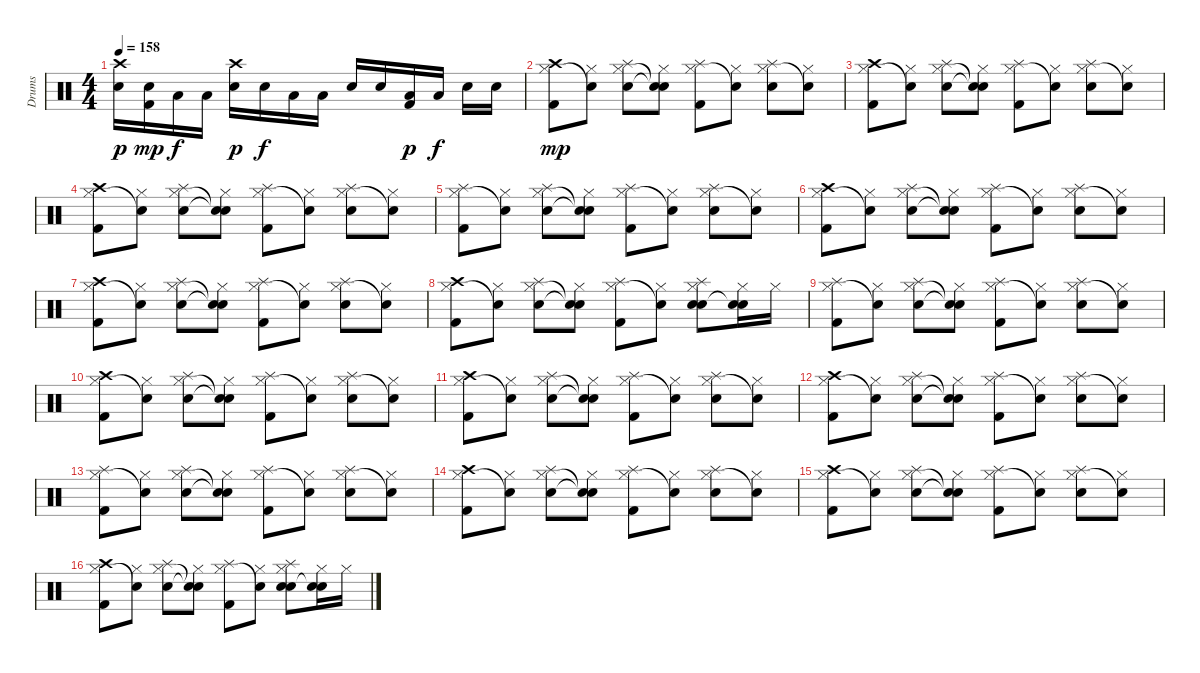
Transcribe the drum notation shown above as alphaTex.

\track ("Drums" "Drums") {instrument percussion}
\staff {score}
\articulation defaults
\ts (4 4)
\tempo 158
\clef neutral
\ks c
("Crash high (hit)" "Electric Snare (hit)").16{dy p} ("Electric Snare (hit)" "Kick (hit) 2").16{dy mp} "Low Tom (hit)".16{dy f} "Low Tom (hit)".16 ("Crash high (hit)" "Electric Snare (hit)").16{dy p} "Electric Snare (hit)".16{dy f} "Low Tom (hit)".16 "Low Tom (hit)".16 "Electric Snare (hit)".16 "Electric Snare (hit)".16 ("Low Tom (hit)" "Kick (hit) 2").16{dy p} "Low Tom (hit)".16{dy f} "Electric Snare (hit)".16 "Electric Snare (hit)".16 |
("Crash high (hit)" "Hi-Hat (closed)" "Kick (hit) 2").8{dy mp} ("Hi-Hat (closed)" "Snare (hit)"{t}).8 ("Splash (hit)" "Hi-Hat (closed)" "Electric Snare (hit)").8 ("Hi-Hat (closed)" "Electric Snare (hit)"{t} "Snare (hit)"{t}).8 ("Splash (hit)" "Hi-Hat (closed)" "Kick (hit) 2").8 ("Hi-Hat (closed)" "Snare (hit)"{t}).8 ("Splash (hit)" "Hi-Hat (closed)" "Electric Snare (hit)").8 ("Hi-Hat (closed)" "Snare (hit)"{t}).8 |
("Crash high (hit)" "Hi-Hat (closed)" "Kick (hit) 2").8 ("Hi-Hat (closed)" "Snare (hit)"{t}).8 ("Splash (hit)" "Hi-Hat (closed)" "Electric Snare (hit)").8 ("Hi-Hat (closed)" "Electric Snare (hit)"{t} "Snare (hit)"{t}).8 ("Splash (hit)" "Hi-Hat (closed)" "Kick (hit) 2").8 ("Hi-Hat (closed)" "Snare (hit)"{t}).8 ("Splash (hit)" "Hi-Hat (closed)" "Electric Snare (hit)").8 ("Hi-Hat (closed)" "Snare (hit)"{t}).8 |
("Crash high (hit)" "Hi-Hat (closed)" "Kick (hit) 2").8 ("Hi-Hat (closed)" "Snare (hit)"{t}).8 ("Splash (hit)" "Hi-Hat (closed)" "Electric Snare (hit)").8 ("Hi-Hat (closed)" "Electric Snare (hit)"{t} "Snare (hit)"{t}).8 ("Splash (hit)" "Hi-Hat (closed)" "Kick (hit) 2").8 ("Hi-Hat (closed)" "Snare (hit)"{t}).8 ("Splash (hit)" "Hi-Hat (closed)" "Electric Snare (hit)").8 ("Hi-Hat (closed)" "Snare (hit)"{t}).8 |
("Splash (hit)" "Hi-Hat (closed)" "Kick (hit) 2").8 ("Hi-Hat (closed)" "Snare (hit)"{t}).8 ("Splash (hit)" "Hi-Hat (closed)" "Electric Snare (hit)").8 ("Hi-Hat (closed)" "Electric Snare (hit)"{t} "Snare (hit)"{t}).8 ("Splash (hit)" "Hi-Hat (closed)" "Kick (hit) 2").8 ("Hi-Hat (closed)" "Snare (hit)"{t}).8 ("Splash (hit)" "Hi-Hat (closed)" "Electric Snare (hit)").8 ("Hi-Hat (closed)" "Snare (hit)"{t}).8 |
("Crash high (hit)" "Hi-Hat (closed)" "Kick (hit) 2").8 ("Hi-Hat (closed)" "Snare (hit)"{t}).8 ("Splash (hit)" "Hi-Hat (closed)" "Electric Snare (hit)").8 ("Hi-Hat (closed)" "Electric Snare (hit)"{t} "Snare (hit)"{t}).8 ("Splash (hit)" "Hi-Hat (closed)" "Kick (hit) 2").8 ("Hi-Hat (closed)" "Snare (hit)"{t}).8 ("Splash (hit)" "Hi-Hat (closed)" "Electric Snare (hit)").8 ("Hi-Hat (closed)" "Snare (hit)"{t}).8 |
("Crash high (hit)" "Hi-Hat (closed)" "Kick (hit) 2").8 ("Hi-Hat (closed)" "Snare (hit)"{t}).8 ("Splash (hit)" "Hi-Hat (closed)" "Electric Snare (hit)").8 ("Hi-Hat (closed)" "Electric Snare (hit)"{t} "Snare (hit)"{t}).8 ("Splash (hit)" "Hi-Hat (closed)" "Kick (hit) 2").8 ("Hi-Hat (closed)" "Snare (hit)"{t}).8 ("Splash (hit)" "Hi-Hat (closed)" "Electric Snare (hit)").8 ("Hi-Hat (closed)" "Snare (hit)"{t}).8 |
("Crash high (hit)" "Hi-Hat (closed)" "Kick (hit) 2").8 ("Hi-Hat (closed)" "Snare (hit)"{t}).8 ("Splash (hit)" "Hi-Hat (closed)" "Electric Snare (hit)").8 ("Hi-Hat (closed)" "Electric Snare (hit)"{t} "Snare (hit)"{t}).8 ("Splash (hit)" "Hi-Hat (closed)" "Kick (hit) 2").8 ("Hi-Hat (closed)" "Snare (hit)"{t}).8 ("Splash (hit)" "Hi-Hat (closed)" "Electric Snare (hit)" "Electric Snare (hit)").8 ("Hi-Hat (closed)" "Electric Snare (hit)" "Snare (hit)"{t}).16 "Hi-Hat (closed)".16 |
("Splash (hit)" "Hi-Hat (closed)" "Kick (hit) 2").8 ("Hi-Hat (closed)" "Snare (hit)"{t}).8 ("Splash (hit)" "Hi-Hat (closed)" "Electric Snare (hit)").8 ("Hi-Hat (closed)" "Electric Snare (hit)"{t} "Snare (hit)"{t}).8 ("Splash (hit)" "Hi-Hat (closed)" "Kick (hit) 2").8 ("Hi-Hat (closed)" "Snare (hit)"{t}).8 ("Splash (hit)" "Hi-Hat (closed)" "Electric Snare (hit)").8 ("Hi-Hat (closed)" "Snare (hit)"{t}).8 |
("Crash high (hit)" "Hi-Hat (closed)" "Kick (hit) 2").8 ("Hi-Hat (closed)" "Snare (hit)"{t}).8 ("Splash (hit)" "Hi-Hat (closed)" "Electric Snare (hit)").8 ("Hi-Hat (closed)" "Electric Snare (hit)"{t} "Snare (hit)"{t}).8 ("Splash (hit)" "Hi-Hat (closed)" "Kick (hit) 2").8 ("Hi-Hat (closed)" "Snare (hit)"{t}).8 ("Splash (hit)" "Hi-Hat (closed)" "Electric Snare (hit)").8 ("Hi-Hat (closed)" "Snare (hit)"{t}).8 |
("Crash high (hit)" "Hi-Hat (closed)" "Kick (hit) 2").8 ("Hi-Hat (closed)" "Snare (hit)"{t}).8 ("Splash (hit)" "Hi-Hat (closed)" "Electric Snare (hit)").8 ("Hi-Hat (closed)" "Electric Snare (hit)"{t} "Snare (hit)"{t}).8 ("Splash (hit)" "Hi-Hat (closed)" "Kick (hit) 2").8 ("Hi-Hat (closed)" "Snare (hit)"{t}).8 ("Splash (hit)" "Hi-Hat (closed)" "Electric Snare (hit)").8 ("Hi-Hat (closed)" "Snare (hit)"{t}).8 |
("Crash high (hit)" "Hi-Hat (closed)" "Kick (hit) 2").8 ("Hi-Hat (closed)" "Snare (hit)"{t}).8 ("Splash (hit)" "Hi-Hat (closed)" "Electric Snare (hit)").8 ("Hi-Hat (closed)" "Electric Snare (hit)"{t} "Snare (hit)"{t}).8 ("Splash (hit)" "Hi-Hat (closed)" "Kick (hit) 2").8 ("Hi-Hat (closed)" "Snare (hit)"{t}).8 ("Splash (hit)" "Hi-Hat (closed)" "Electric Snare (hit)").8 ("Hi-Hat (closed)" "Snare (hit)"{t}).8 |
("Splash (hit)" "Hi-Hat (closed)" "Kick (hit) 2").8 ("Hi-Hat (closed)" "Snare (hit)"{t}).8 ("Splash (hit)" "Hi-Hat (closed)" "Electric Snare (hit)").8 ("Hi-Hat (closed)" "Electric Snare (hit)"{t} "Snare (hit)"{t}).8 ("Splash (hit)" "Hi-Hat (closed)" "Kick (hit) 2").8 ("Hi-Hat (closed)" "Snare (hit)"{t}).8 ("Splash (hit)" "Hi-Hat (closed)" "Electric Snare (hit)").8 ("Hi-Hat (closed)" "Snare (hit)"{t}).8 |
("Crash high (hit)" "Hi-Hat (closed)" "Kick (hit) 2").8 ("Hi-Hat (closed)" "Snare (hit)"{t}).8 ("Splash (hit)" "Hi-Hat (closed)" "Electric Snare (hit)").8 ("Hi-Hat (closed)" "Electric Snare (hit)"{t} "Snare (hit)"{t}).8 ("Splash (hit)" "Hi-Hat (closed)" "Kick (hit) 2").8 ("Hi-Hat (closed)" "Snare (hit)"{t}).8 ("Splash (hit)" "Hi-Hat (closed)" "Electric Snare (hit)").8 ("Hi-Hat (closed)" "Snare (hit)"{t}).8 |
("Crash high (hit)" "Hi-Hat (closed)" "Kick (hit) 2").8 ("Hi-Hat (closed)" "Snare (hit)"{t}).8 ("Splash (hit)" "Hi-Hat (closed)" "Electric Snare (hit)").8 ("Hi-Hat (closed)" "Electric Snare (hit)"{t} "Snare (hit)"{t}).8 ("Splash (hit)" "Hi-Hat (closed)" "Kick (hit) 2").8 ("Hi-Hat (closed)" "Snare (hit)"{t}).8 ("Splash (hit)" "Hi-Hat (closed)" "Electric Snare (hit)").8 ("Hi-Hat (closed)" "Snare (hit)"{t}).8 |
("Crash high (hit)" "Hi-Hat (closed)" "Kick (hit) 2").8 ("Hi-Hat (closed)" "Snare (hit)"{t}).8 ("Splash (hit)" "Hi-Hat (closed)" "Electric Snare (hit)").8 ("Hi-Hat (closed)" "Electric Snare (hit)"{t} "Snare (hit)"{t}).8 ("Splash (hit)" "Hi-Hat (closed)" "Kick (hit) 2").8 ("Hi-Hat (closed)" "Snare (hit)"{t}).8 ("Splash (hit)" "Hi-Hat (closed)" "Electric Snare (hit)" "Electric Snare (hit)").8 ("Hi-Hat (closed)" "Electric Snare (hit)" "Snare (hit)"{t}).16 "Hi-Hat (closed)".16
